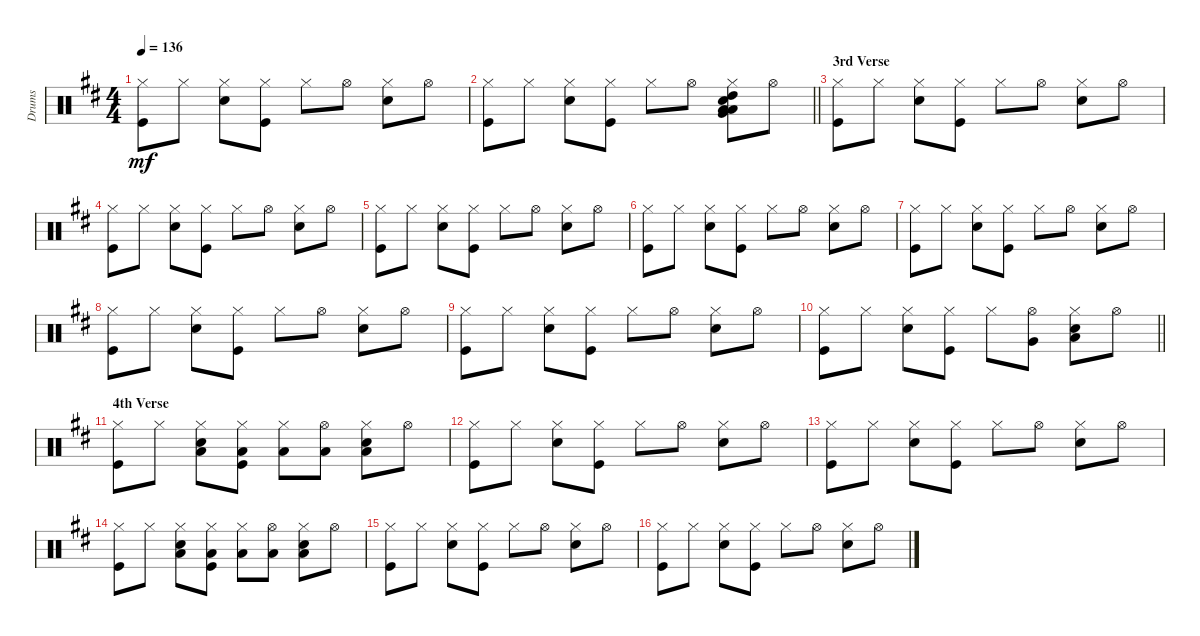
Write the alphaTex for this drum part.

\track ("Drums" "Drums") {instrument percussion}
\staff {score}
\articulation defaults
\ts (4 4)
\tempo 136
\clef neutral
\ks bminor
("Kick (hit)" "Hi-Hat (closed)").8{dy mf} "Hi-Hat (closed)".8 ("Snare (hit) 2" "Hi-Hat (closed)").8 ("Kick (hit)" "Hi-Hat (closed)").8 "Hi-Hat (closed)".8 "Hi-Hat (open)".8 ("Snare (hit) 2" "Hi-Hat (closed)").8 "Hi-Hat (open)".8 |
\barLineRight lightlight
("Kick (hit)" "Hi-Hat (closed)").8 "Hi-Hat (closed)".8 ("Snare (hit) 2" "Hi-Hat (closed)").8 ("Kick (hit)" "Hi-Hat (closed)").8 "Hi-Hat (closed)".8 "Hi-Hat (open)".8 ("High Tom (hit)" "Low Tom (hit)" "Very Low Tom (hit)" "Low Floor Tom (hit)" "Snare (hit) 2" "Hi-Hat (closed)").8 "Hi-Hat (open)".8 |
\section ("" "3rd Verse")
("Kick (hit)" "Hi-Hat (closed)").8 "Hi-Hat (closed)".8 ("Snare (hit) 2" "Hi-Hat (closed)").8 ("Kick (hit)" "Hi-Hat (closed)").8 "Hi-Hat (closed)".8 "Hi-Hat (open)".8 ("Snare (hit) 2" "Hi-Hat (closed)").8 "Hi-Hat (open)".8 |
("Kick (hit)" "Hi-Hat (closed)").8 "Hi-Hat (closed)".8 ("Snare (hit) 2" "Hi-Hat (closed)").8 ("Kick (hit)" "Hi-Hat (closed)").8 "Hi-Hat (closed)".8 "Hi-Hat (open)".8 ("Snare (hit) 2" "Hi-Hat (closed)").8 "Hi-Hat (open)".8 |
("Kick (hit)" "Hi-Hat (closed)").8 "Hi-Hat (closed)".8 ("Snare (hit) 2" "Hi-Hat (closed)").8 ("Kick (hit)" "Hi-Hat (closed)").8 "Hi-Hat (closed)".8 "Hi-Hat (open)".8 ("Snare (hit) 2" "Hi-Hat (closed)").8 "Hi-Hat (open)".8 |
("Kick (hit)" "Hi-Hat (closed)").8 "Hi-Hat (closed)".8 ("Snare (hit) 2" "Hi-Hat (closed)").8 ("Kick (hit)" "Hi-Hat (closed)").8 "Hi-Hat (closed)".8 "Hi-Hat (open)".8 ("Snare (hit) 2" "Hi-Hat (closed)").8 "Hi-Hat (open)".8 |
("Kick (hit)" "Hi-Hat (closed)").8 "Hi-Hat (closed)".8 ("Snare (hit) 2" "Hi-Hat (closed)").8 ("Kick (hit)" "Hi-Hat (closed)").8 "Hi-Hat (closed)".8 "Hi-Hat (open)".8 ("Snare (hit) 2" "Hi-Hat (closed)").8 "Hi-Hat (open)".8 |
("Kick (hit)" "Hi-Hat (closed)").8 "Hi-Hat (closed)".8 ("Snare (hit) 2" "Hi-Hat (closed)").8 ("Kick (hit)" "Hi-Hat (closed)").8 "Hi-Hat (closed)".8 "Hi-Hat (open)".8 ("Snare (hit) 2" "Hi-Hat (closed)").8 "Hi-Hat (open)".8 |
("Kick (hit)" "Hi-Hat (closed)").8 "Hi-Hat (closed)".8 ("Snare (hit) 2" "Hi-Hat (closed)").8 ("Kick (hit)" "Hi-Hat (closed)").8 "Hi-Hat (closed)".8 "Hi-Hat (open)".8 ("Snare (hit) 2" "Hi-Hat (closed)").8 "Hi-Hat (open)".8 |
\barLineRight lightlight
("Kick (hit)" "Hi-Hat (closed)").8 "Hi-Hat (closed)".8 ("Snare (hit) 2" "Hi-Hat (closed)").8 ("Kick (hit)" "Hi-Hat (closed)").8 "Hi-Hat (closed)".8 ("Very Low Tom (hit)" "Hi-Hat (open)").8 ("Low Floor Tom (hit)" "Snare (hit) 2" "Hi-Hat (closed)").8 "Hi-Hat (open)".8 |
\section ("" "4th Verse")
("Kick (hit)" "Hi-Hat (closed)").8 "Hi-Hat (closed)".8 ("Low Floor Tom (hit)" "Snare (hit) 2" "Hi-Hat (closed)").8 ("Low Floor Tom (hit)" "Kick (hit)" "Hi-Hat (closed)").8 ("Low Floor Tom (hit)" "Hi-Hat (closed)").8 ("Low Floor Tom (hit)" "Hi-Hat (open)").8 ("Low Floor Tom (hit)" "Snare (hit) 2" "Hi-Hat (closed)").8 "Hi-Hat (open)".8 |
("Kick (hit)" "Hi-Hat (closed)").8 "Hi-Hat (closed)".8 ("Snare (hit) 2" "Hi-Hat (closed)").8 ("Kick (hit)" "Hi-Hat (closed)").8 "Hi-Hat (closed)".8 "Hi-Hat (open)".8 ("Snare (hit) 2" "Hi-Hat (closed)").8 "Hi-Hat (open)".8 |
("Kick (hit)" "Hi-Hat (closed)").8 "Hi-Hat (closed)".8 ("Snare (hit) 2" "Hi-Hat (closed)").8 ("Kick (hit)" "Hi-Hat (closed)").8 "Hi-Hat (closed)".8 "Hi-Hat (open)".8 ("Snare (hit) 2" "Hi-Hat (closed)").8 "Hi-Hat (open)".8 |
("Kick (hit)" "Hi-Hat (closed)").8 "Hi-Hat (closed)".8 ("Low Floor Tom (hit)" "Snare (hit) 2" "Hi-Hat (closed)").8 ("Low Floor Tom (hit)" "Kick (hit)" "Hi-Hat (closed)").8 ("Low Floor Tom (hit)" "Hi-Hat (closed)").8 ("Low Floor Tom (hit)" "Hi-Hat (open)").8 ("Low Floor Tom (hit)" "Snare (hit) 2" "Hi-Hat (closed)").8 "Hi-Hat (open)".8 |
("Kick (hit)" "Hi-Hat (closed)").8 "Hi-Hat (closed)".8 ("Snare (hit) 2" "Hi-Hat (closed)").8 ("Kick (hit)" "Hi-Hat (closed)").8 "Hi-Hat (closed)".8 "Hi-Hat (open)".8 ("Snare (hit) 2" "Hi-Hat (closed)").8 "Hi-Hat (open)".8 |
("Kick (hit)" "Hi-Hat (closed)").8 "Hi-Hat (closed)".8 ("Snare (hit) 2" "Hi-Hat (closed)").8 ("Kick (hit)" "Hi-Hat (closed)").8 "Hi-Hat (closed)".8 "Hi-Hat (open)".8 ("Snare (hit) 2" "Hi-Hat (closed)").8 "Hi-Hat (open)".8
